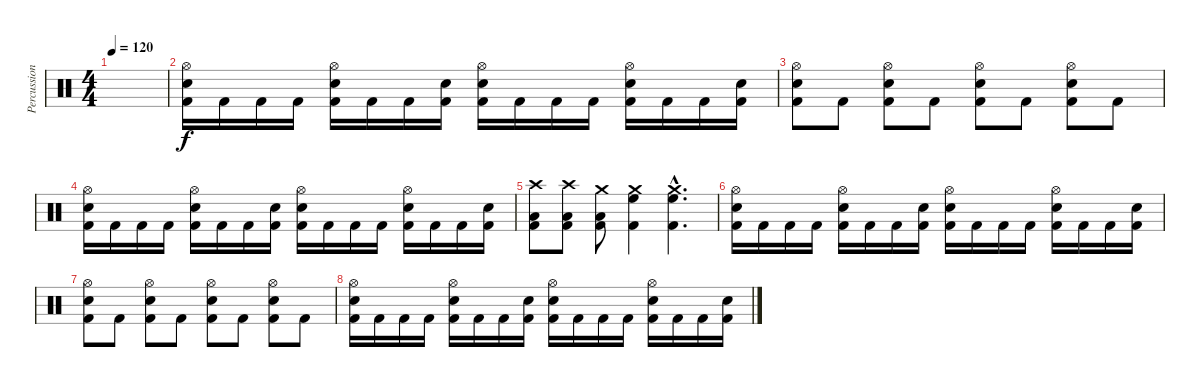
\track ("Percussion" "Percussion") {instrument percussion}
\staff {score}
\articulation defaults
\ts (4 4)
\tempo 120
\clef neutral
\ks c
|
("Hi-Hat (open)" "Snare (hit) 2" "Kick (hit) 2").16 "Kick (hit) 2".16 "Kick (hit) 2".16 "Kick (hit) 2".16 ("Hi-Hat (open)" "Snare (hit) 2" "Kick (hit) 2").16 "Kick (hit) 2".16 "Kick (hit) 2".16 ("Snare (hit) 2" "Kick (hit) 2").16 ("Hi-Hat (open)" "Snare (hit) 2" "Kick (hit) 2").16 "Kick (hit) 2".16 "Kick (hit) 2".16 "Kick (hit) 2".16 ("Hi-Hat (open)" "Snare (hit) 2" "Kick (hit) 2").16 "Kick (hit) 2".16 "Kick (hit) 2".16 ("Snare (hit) 2" "Kick (hit) 2").16 |
("Hi-Hat (open)" "Snare (hit) 2" "Kick (hit) 2").8 "Kick (hit) 2".8 ("Hi-Hat (open)" "Snare (hit) 2" "Kick (hit) 2").8 "Kick (hit) 2".8 ("Hi-Hat (open)" "Snare (hit) 2" "Kick (hit) 2").8 "Kick (hit) 2".8 ("Hi-Hat (open)" "Snare (hit) 2" "Kick (hit) 2").8 "Kick (hit) 2".8 |
("Hi-Hat (open)" "Snare (hit) 2" "Kick (hit) 2").16 "Kick (hit) 2".16 "Kick (hit) 2".16 "Kick (hit) 2".16 ("Hi-Hat (open)" "Snare (hit) 2" "Kick (hit) 2").16 "Kick (hit) 2".16 "Kick (hit) 2".16 ("Snare (hit) 2" "Kick (hit) 2").16 ("Hi-Hat (open)" "Snare (hit) 2" "Kick (hit) 2").16 "Kick (hit) 2".16 "Kick (hit) 2".16 "Kick (hit) 2".16 ("Hi-Hat (open)" "Snare (hit) 2" "Kick (hit) 2").16 "Kick (hit) 2".16 "Kick (hit) 2".16 ("Snare (hit) 2" "Kick (hit) 2").16 |
("Low Floor Tom (hit)" "Crash high (hit)" "Kick (hit) 2").8 ("Low Floor Tom (hit)" "Crash high (hit)" "Kick (hit) 2").8 ("Low Floor Tom (hit)" "Crash medium (hit)" "Kick (hit) 2").8 ("High Floor Tom (hit)" "Crash medium (hit)" "Kick (hit) 2").4 ("High Floor Tom (hit)"{hac} "Crash medium (hit)"{hac} "Kick (hit) 2"{hac}).4{d} |
("Hi-Hat (open)" "Snare (hit) 2" "Kick (hit) 2").16 "Kick (hit) 2".16 "Kick (hit) 2".16 "Kick (hit) 2".16 ("Hi-Hat (open)" "Snare (hit) 2" "Kick (hit) 2").16 "Kick (hit) 2".16 "Kick (hit) 2".16 ("Snare (hit) 2" "Kick (hit) 2").16 ("Hi-Hat (open)" "Snare (hit) 2" "Kick (hit) 2").16 "Kick (hit) 2".16 "Kick (hit) 2".16 "Kick (hit) 2".16 ("Hi-Hat (open)" "Snare (hit) 2" "Kick (hit) 2").16 "Kick (hit) 2".16 "Kick (hit) 2".16 ("Snare (hit) 2" "Kick (hit) 2").16 |
("Hi-Hat (open)" "Snare (hit) 2" "Kick (hit) 2").8 "Kick (hit) 2".8 ("Hi-Hat (open)" "Snare (hit) 2" "Kick (hit) 2").8 "Kick (hit) 2".8 ("Hi-Hat (open)" "Snare (hit) 2" "Kick (hit) 2").8 "Kick (hit) 2".8 ("Hi-Hat (open)" "Snare (hit) 2" "Kick (hit) 2").8 "Kick (hit) 2".8 |
("Hi-Hat (open)" "Snare (hit) 2" "Kick (hit) 2").16 "Kick (hit) 2".16 "Kick (hit) 2".16 "Kick (hit) 2".16 ("Hi-Hat (open)" "Snare (hit) 2" "Kick (hit) 2").16 "Kick (hit) 2".16 "Kick (hit) 2".16 ("Snare (hit) 2" "Kick (hit) 2").16 ("Hi-Hat (open)" "Snare (hit) 2" "Kick (hit) 2").16 "Kick (hit) 2".16 "Kick (hit) 2".16 "Kick (hit) 2".16 ("Hi-Hat (open)" "Snare (hit) 2" "Kick (hit) 2").16 "Kick (hit) 2".16 "Kick (hit) 2".16 ("Snare (hit) 2" "Kick (hit) 2").16
